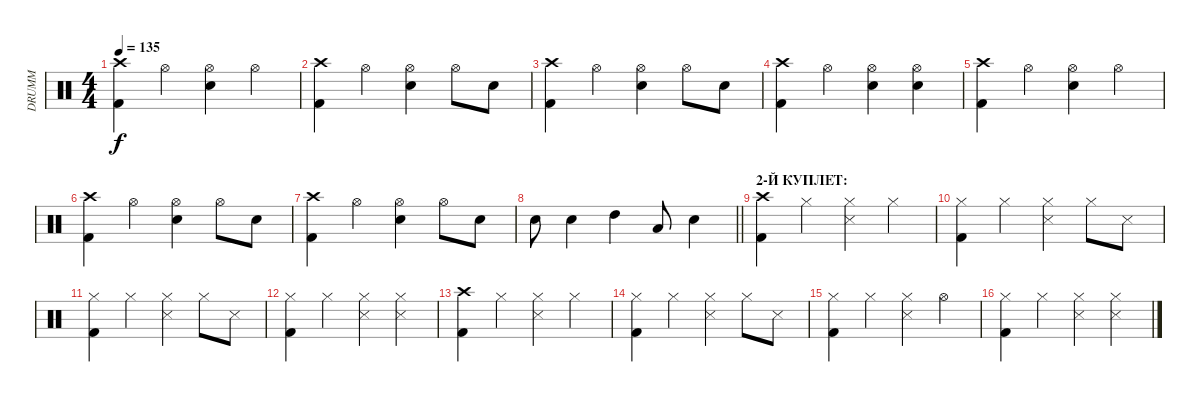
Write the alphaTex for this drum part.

\track ("DRUMM" "DRUMM") {instrument percussion}
\staff {score}
\articulation defaults
\ts (4 4)
\tempo 135
\clef neutral
\ks c
("Crash high (hit)" "Kick (hit) 2").4{dy f} "Hi-Hat (open)".4 ("Hi-Hat (open)" "Electric Snare (hit)").4 "Hi-Hat (open)".4 |
("Crash high (hit)" "Kick (hit) 2").4 "Hi-Hat (open)".4 ("Hi-Hat (open)" "Electric Snare (hit)").4 "Hi-Hat (open)".8 "Electric Snare (hit)".8 |
("Crash high (hit)" "Kick (hit) 2").4 "Hi-Hat (open)".4 ("Hi-Hat (open)" "Electric Snare (hit)").4 "Hi-Hat (open)".8 "Electric Snare (hit)".8 |
("Crash high (hit)" "Kick (hit) 2").4 "Hi-Hat (open)".4 ("Hi-Hat (open)" "Electric Snare (hit)").4 ("Electric Snare (hit)" "Hi-Hat (open)").4 |
("Crash high (hit)" "Kick (hit) 2").4 "Hi-Hat (open)".4 ("Hi-Hat (open)" "Electric Snare (hit)").4 "Hi-Hat (open)".4 |
("Crash high (hit)" "Kick (hit) 2").4 "Hi-Hat (open)".4 ("Hi-Hat (open)" "Electric Snare (hit)").4 "Hi-Hat (open)".8 "Electric Snare (hit)".8 |
("Crash high (hit)" "Kick (hit) 2").4 "Hi-Hat (open)".4 ("Hi-Hat (open)" "Electric Snare (hit)").4 "Hi-Hat (open)".8 "Electric Snare (hit)".8 |
\barLineRight lightlight "Electric Snare (hit)".8 "Electric Snare (hit)".4 "High Tom (hit)".4 "Low Tom (hit)".8 "Electric Snare (hit)".4
|
\section ("" "2-Й КУПЛЕТ:")
("Crash high (hit)" "Kick (hit) 2").4 "Hi-Hat (closed)".4 ("Hi-Hat (closed)" "Snare (side stick) 3").4 "Hi-Hat (closed)".4 |
("Hi-Hat (closed)" "Kick (hit) 2").4 "Hi-Hat (closed)".4 ("Hi-Hat (closed)" "Snare (side stick) 3").4 "Hi-Hat (closed)".8 "Snare (side stick) 3".8 |
("Hi-Hat (closed)" "Kick (hit) 2").4 "Hi-Hat (closed)".4 ("Hi-Hat (closed)" "Snare (side stick) 3").4 "Hi-Hat (closed)".8 "Snare (side stick) 3".8 |
("Hi-Hat (closed)" "Kick (hit) 2").4 "Hi-Hat (closed)".4 ("Hi-Hat (closed)" "Snare (side stick) 3").4 ("Hi-Hat (closed)" "Snare (side stick) 3").4 |
("Crash high (hit)" "Kick (hit) 2").4 "Hi-Hat (closed)".4 ("Hi-Hat (closed)" "Snare (side stick) 3").4 "Hi-Hat (closed)".4 |
("Hi-Hat (closed)" "Kick (hit) 2").4 "Hi-Hat (closed)".4 ("Hi-Hat (closed)" "Snare (side stick) 3").4 "Hi-Hat (closed)".8 "Snare (side stick) 3".8 |
("Hi-Hat (closed)" "Kick (hit) 2").4 "Hi-Hat (closed)".4 ("Hi-Hat (closed)" "Snare (side stick) 3").4 "Hi-Hat (open)".4 |
("Hi-Hat (closed)" "Kick (hit) 2").4 "Hi-Hat (closed)".4 ("Hi-Hat (closed)" "Snare (side stick) 3").4 ("Hi-Hat (closed)" "Snare (side stick) 3").4
